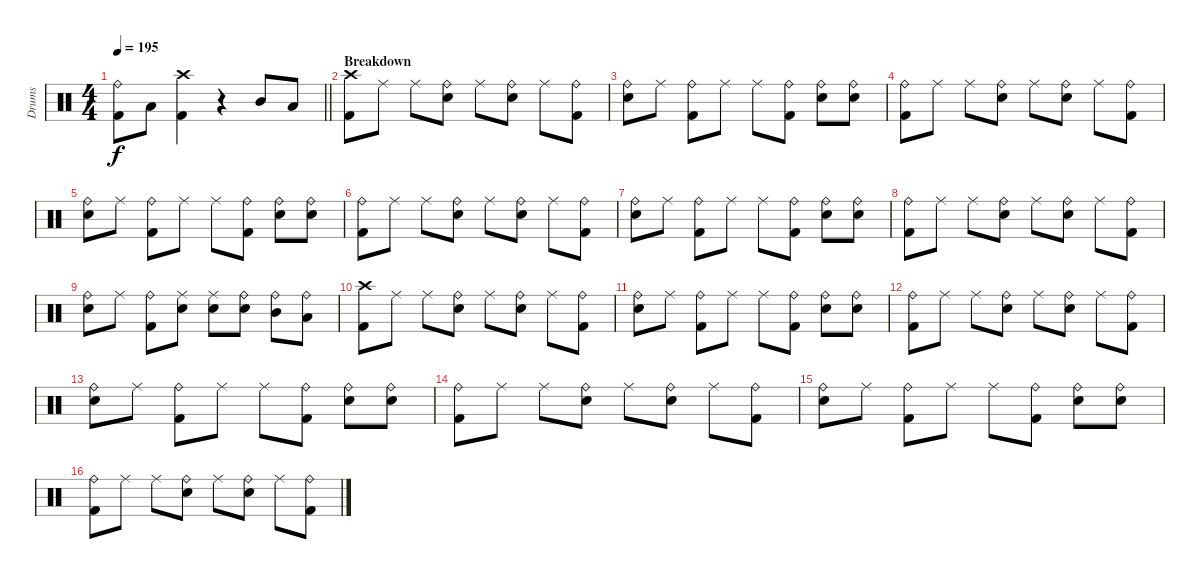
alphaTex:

\track ("Drums" "Drums") {instrument percussion}
\staff {score}
\articulation defaults
\ts (4 4)
\tempo 195
\clef neutral
\barLineRight lightlight
\ks c
("Ride (bell)" "Kick (hit) 2").8{dy f} "Low Floor Tom (hit)".8 ("Crash high (hit)" "Kick (hit) 2").4 r.4 "Mid Tom (hit)".8 "Low Floor Tom (hit)".8 |
\section ("" "Breakdown")
("Crash high (hit)" "Kick (hit) 2").8 "Ride (middle)".8 "Ride (middle)".8 ("Ride (bell)" "Snare (hit) 2").8 "Ride (middle)".8 ("Ride (bell)" "Snare (hit) 2").8 "Ride (middle)".8 ("Ride (bell)" "Kick (hit) 2").8 |
("Ride (bell)" "Snare (hit) 2").8 "Ride (middle)".8 ("Ride (bell)" "Kick (hit) 2").8 "Ride (middle)".8 "Ride (middle)".8 ("Ride (bell)" "Kick (hit) 2").8 ("Ride (bell)" "Snare (hit) 2").8 ("Ride (bell)" "Snare (hit) 2").8 |
("Ride (bell)" "Kick (hit) 2").8 "Ride (middle)".8 "Ride (middle)".8 ("Ride (bell)" "Snare (hit) 2").8 "Ride (middle)".8 ("Ride (bell)" "Snare (hit) 2").8 "Ride (middle)".8 ("Ride (bell)" "Kick (hit) 2").8 |
("Ride (bell)" "Snare (hit) 2").8 "Ride (middle)".8 ("Ride (bell)" "Kick (hit) 2").8 "Ride (middle)".8 "Ride (middle)".8 ("Ride (bell)" "Kick (hit) 2").8 ("Ride (bell)" "Snare (hit) 2").8 ("Ride (bell)" "Snare (hit) 2").8 |
("Ride (bell)" "Kick (hit) 2").8 "Ride (middle)".8 "Ride (middle)".8 ("Ride (bell)" "Snare (hit) 2").8 "Ride (middle)".8 ("Ride (bell)" "Snare (hit) 2").8 "Ride (middle)".8 ("Ride (bell)" "Kick (hit) 2").8 |
("Ride (bell)" "Snare (hit) 2").8 "Ride (middle)".8 ("Ride (bell)" "Kick (hit) 2").8 "Ride (middle)".8 "Ride (middle)".8 ("Ride (bell)" "Kick (hit) 2").8 ("Ride (bell)" "Snare (hit) 2").8 ("Ride (bell)" "Snare (hit) 2").8 |
("Ride (bell)" "Kick (hit) 2").8 "Ride (middle)".8 "Ride (middle)".8 ("Ride (bell)" "Snare (hit) 2").8 "Ride (middle)".8 ("Ride (bell)" "Snare (hit) 2").8 "Ride (middle)".8 ("Ride (bell)" "Kick (hit) 2").8 |
("Ride (bell)" "Snare (hit) 2").8 "Ride (middle)".8 ("Ride (bell)" "Kick (hit) 2").8 ("Ride (middle)" "Snare (hit) 2").8 ("Ride (middle)" "Snare (hit) 2").8 ("Ride (bell)" "Snare (hit) 2").8 ("Ride (bell)" "Mid Tom (hit)").8 ("Ride (bell)" "Low Floor Tom (hit)").8 |
("Crash high (hit)" "Kick (hit) 2").8 "Ride (middle)".8 "Ride (middle)".8 ("Ride (bell)" "Snare (hit) 2").8 "Ride (middle)".8 ("Ride (bell)" "Snare (hit) 2").8 "Ride (middle)".8 ("Ride (bell)" "Kick (hit) 2").8 |
("Ride (bell)" "Snare (hit) 2").8 "Ride (middle)".8 ("Ride (bell)" "Kick (hit) 2").8 "Ride (middle)".8 "Ride (middle)".8 ("Ride (bell)" "Kick (hit) 2").8 ("Ride (bell)" "Snare (hit) 2").8 ("Ride (bell)" "Snare (hit) 2").8 |
("Ride (bell)" "Kick (hit) 2").8 "Ride (middle)".8 "Ride (middle)".8 ("Ride (bell)" "Snare (hit) 2").8 "Ride (middle)".8 ("Ride (bell)" "Snare (hit) 2").8 "Ride (middle)".8 ("Ride (bell)" "Kick (hit) 2").8 |
("Ride (bell)" "Snare (hit) 2").8 "Ride (middle)".8 ("Ride (bell)" "Kick (hit) 2").8 "Ride (middle)".8 "Ride (middle)".8 ("Ride (bell)" "Kick (hit) 2").8 ("Ride (bell)" "Snare (hit) 2").8 ("Ride (bell)" "Snare (hit) 2").8 |
("Ride (bell)" "Kick (hit) 2").8 "Ride (middle)".8 "Ride (middle)".8 ("Ride (bell)" "Snare (hit) 2").8 "Ride (middle)".8 ("Ride (bell)" "Snare (hit) 2").8 "Ride (middle)".8 ("Ride (bell)" "Kick (hit) 2").8 |
("Ride (bell)" "Snare (hit) 2").8 "Ride (middle)".8 ("Ride (bell)" "Kick (hit) 2").8 "Ride (middle)".8 "Ride (middle)".8 ("Ride (bell)" "Kick (hit) 2").8 ("Ride (bell)" "Snare (hit) 2").8 ("Ride (bell)" "Snare (hit) 2").8 |
("Ride (bell)" "Kick (hit) 2").8 "Ride (middle)".8 "Ride (middle)".8 ("Ride (bell)" "Snare (hit) 2").8 "Ride (middle)".8 ("Ride (bell)" "Snare (hit) 2").8 "Ride (middle)".8 ("Ride (bell)" "Kick (hit) 2").8
